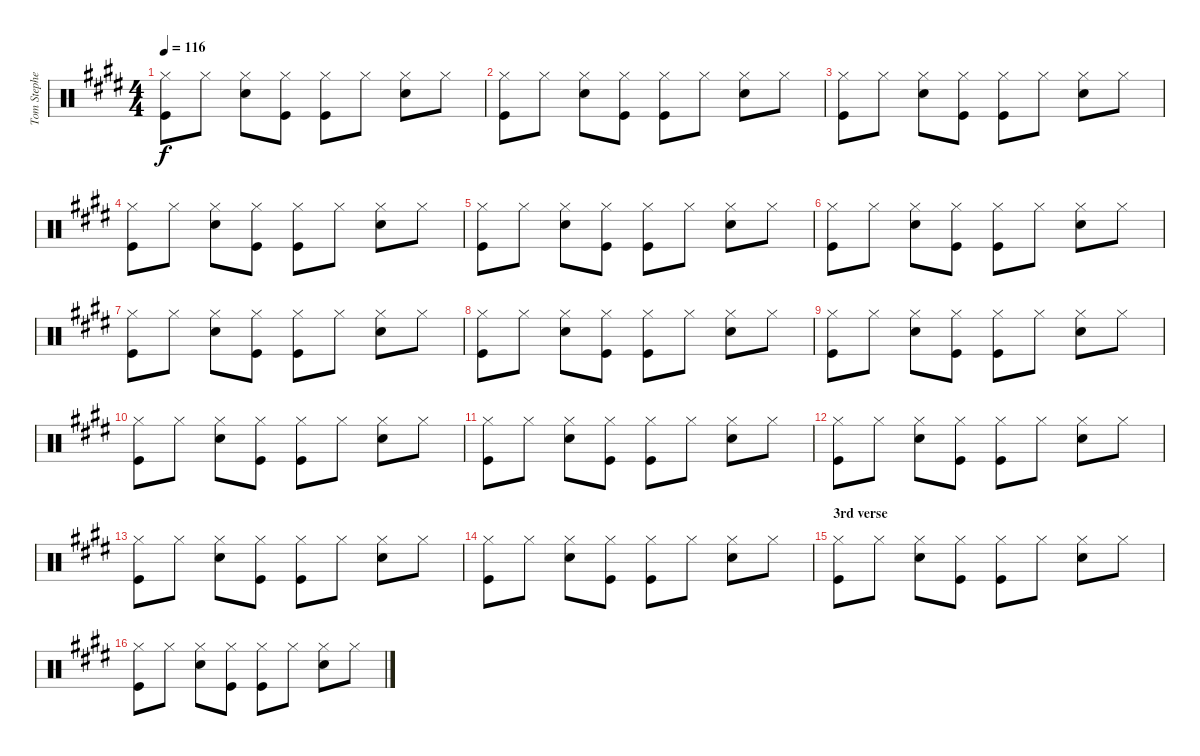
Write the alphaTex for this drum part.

\track ("Tom Stephen" "Tom Stephe") {instrument percussion}
\staff {score}
\articulation defaults
\ts (4 4)
\tempo 116
\clef neutral
\ks e
("Kick (hit)" "Hi-Hat (closed)").8{dy f} "Hi-Hat (closed)".8 ("Snare (hit) 2" "Hi-Hat (closed)").8 ("Kick (hit)" "Hi-Hat (closed)").8 ("Kick (hit)" "Hi-Hat (closed)").8 "Hi-Hat (closed)".8 ("Snare (hit) 2" "Hi-Hat (closed)").8 "Hi-Hat (closed)".8 |
("Kick (hit)" "Hi-Hat (closed)").8 "Hi-Hat (closed)".8 ("Snare (hit) 2" "Hi-Hat (closed)").8 ("Kick (hit)" "Hi-Hat (closed)").8 ("Kick (hit)" "Hi-Hat (closed)").8 "Hi-Hat (closed)".8 ("Snare (hit) 2" "Hi-Hat (closed)").8 "Hi-Hat (closed)".8 |
("Kick (hit)" "Hi-Hat (closed)").8 "Hi-Hat (closed)".8 ("Snare (hit) 2" "Hi-Hat (closed)").8 ("Kick (hit)" "Hi-Hat (closed)").8 ("Kick (hit)" "Hi-Hat (closed)").8 "Hi-Hat (closed)".8 ("Snare (hit) 2" "Hi-Hat (closed)").8 "Hi-Hat (closed)".8 |
("Kick (hit)" "Hi-Hat (closed)").8 "Hi-Hat (closed)".8 ("Snare (hit) 2" "Hi-Hat (closed)").8 ("Kick (hit)" "Hi-Hat (closed)").8 ("Kick (hit)" "Hi-Hat (closed)").8 "Hi-Hat (closed)".8 ("Snare (hit) 2" "Hi-Hat (closed)").8 "Hi-Hat (closed)".8 |
("Kick (hit)" "Hi-Hat (closed)").8 "Hi-Hat (closed)".8 ("Snare (hit) 2" "Hi-Hat (closed)").8 ("Kick (hit)" "Hi-Hat (closed)").8 ("Kick (hit)" "Hi-Hat (closed)").8 "Hi-Hat (closed)".8 ("Snare (hit) 2" "Hi-Hat (closed)").8 "Hi-Hat (closed)".8 |
("Kick (hit)" "Hi-Hat (closed)").8 "Hi-Hat (closed)".8 ("Snare (hit) 2" "Hi-Hat (closed)").8 ("Kick (hit)" "Hi-Hat (closed)").8 ("Kick (hit)" "Hi-Hat (closed)").8 "Hi-Hat (closed)".8 ("Snare (hit) 2" "Hi-Hat (closed)").8 "Hi-Hat (closed)".8 |
("Kick (hit)" "Hi-Hat (closed)").8 "Hi-Hat (closed)".8 ("Snare (hit) 2" "Hi-Hat (closed)").8 ("Kick (hit)" "Hi-Hat (closed)").8 ("Kick (hit)" "Hi-Hat (closed)").8 "Hi-Hat (closed)".8 ("Snare (hit) 2" "Hi-Hat (closed)").8 "Hi-Hat (closed)".8 |
("Kick (hit)" "Hi-Hat (closed)").8 "Hi-Hat (closed)".8 ("Snare (hit) 2" "Hi-Hat (closed)").8 ("Kick (hit)" "Hi-Hat (closed)").8 ("Kick (hit)" "Hi-Hat (closed)").8 "Hi-Hat (closed)".8 ("Snare (hit) 2" "Hi-Hat (closed)").8 "Hi-Hat (closed)".8 |
("Kick (hit)" "Hi-Hat (closed)").8 "Hi-Hat (closed)".8 ("Snare (hit) 2" "Hi-Hat (closed)").8 ("Kick (hit)" "Hi-Hat (closed)").8 ("Kick (hit)" "Hi-Hat (closed)").8 "Hi-Hat (closed)".8 ("Snare (hit) 2" "Hi-Hat (closed)").8 "Hi-Hat (closed)".8 |
("Kick (hit)" "Hi-Hat (closed)").8 "Hi-Hat (closed)".8 ("Snare (hit) 2" "Hi-Hat (closed)").8 ("Kick (hit)" "Hi-Hat (closed)").8 ("Kick (hit)" "Hi-Hat (closed)").8 "Hi-Hat (closed)".8 ("Snare (hit) 2" "Hi-Hat (closed)").8 "Hi-Hat (closed)".8 |
("Kick (hit)" "Hi-Hat (closed)").8 "Hi-Hat (closed)".8 ("Snare (hit) 2" "Hi-Hat (closed)").8 ("Kick (hit)" "Hi-Hat (closed)").8 ("Kick (hit)" "Hi-Hat (closed)").8 "Hi-Hat (closed)".8 ("Snare (hit) 2" "Hi-Hat (closed)").8 "Hi-Hat (closed)".8 |
("Kick (hit)" "Hi-Hat (closed)").8 "Hi-Hat (closed)".8 ("Snare (hit) 2" "Hi-Hat (closed)").8 ("Kick (hit)" "Hi-Hat (closed)").8 ("Kick (hit)" "Hi-Hat (closed)").8 "Hi-Hat (closed)".8 ("Snare (hit) 2" "Hi-Hat (closed)").8 "Hi-Hat (closed)".8 |
("Kick (hit)" "Hi-Hat (closed)").8 "Hi-Hat (closed)".8 ("Snare (hit) 2" "Hi-Hat (closed)").8 ("Kick (hit)" "Hi-Hat (closed)").8 ("Kick (hit)" "Hi-Hat (closed)").8 "Hi-Hat (closed)".8 ("Snare (hit) 2" "Hi-Hat (closed)").8 "Hi-Hat (closed)".8 |
("Kick (hit)" "Hi-Hat (closed)").8 "Hi-Hat (closed)".8 ("Snare (hit) 2" "Hi-Hat (closed)").8 ("Kick (hit)" "Hi-Hat (closed)").8 ("Kick (hit)" "Hi-Hat (closed)").8 "Hi-Hat (closed)".8 ("Snare (hit) 2" "Hi-Hat (closed)").8 "Hi-Hat (closed)".8 |
\section ("" "3rd verse")
("Kick (hit)" "Hi-Hat (closed)").8 "Hi-Hat (closed)".8 ("Snare (hit) 2" "Hi-Hat (closed)").8 ("Kick (hit)" "Hi-Hat (closed)").8 ("Kick (hit)" "Hi-Hat (closed)").8 "Hi-Hat (closed)".8 ("Snare (hit) 2" "Hi-Hat (closed)").8 "Hi-Hat (closed)".8 |
("Kick (hit)" "Hi-Hat (closed)").8 "Hi-Hat (closed)".8 ("Snare (hit) 2" "Hi-Hat (closed)").8 ("Kick (hit)" "Hi-Hat (closed)").8 ("Kick (hit)" "Hi-Hat (closed)").8 "Hi-Hat (closed)".8 ("Snare (hit) 2" "Hi-Hat (closed)").8 "Hi-Hat (closed)".8
